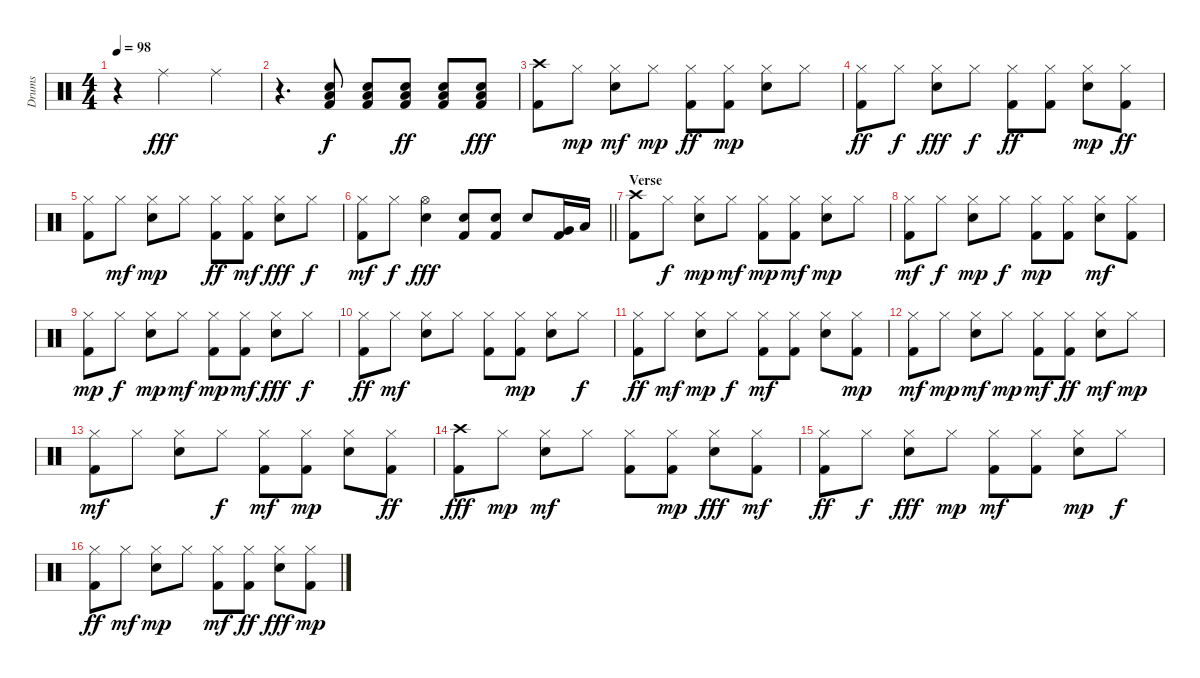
\track ("Drums" "Drums") {instrument percussion}
\staff {score}
\articulation defaults
\ts (4 4)
\tempo 98
\clef neutral
\ks c
r.4{dy fff} "Ride (middle)".2 "Ride (middle)".4 |
r.4{d} ("Kick (hit) 2" "Electric Snare (hit)" "Low Floor Tom (hit)").8{dy f} ("Kick (hit) 2" "Electric Snare (hit)" "Low Floor Tom (hit)").8 ("Kick (hit) 2" "Electric Snare (hit)" "Low Floor Tom (hit)").8{dy ff} ("Kick (hit) 2" "Electric Snare (hit)" "Low Floor Tom (hit)").8 ("Kick (hit) 2" "Electric Snare (hit)" "Low Floor Tom (hit)").8{dy fff} |
("Kick (hit) 2" "Crash high (hit)").8 "Hi-Hat (closed)".8{dy mp} ("Electric Snare (hit)" "Hi-Hat (closed)").8{dy mf} "Hi-Hat (closed)".8{dy mp} ("Kick (hit) 2" "Hi-Hat (closed)").8{dy ff} ("Kick (hit) 2" "Hi-Hat (closed)").8{dy mp} ("Electric Snare (hit)" "Hi-Hat (closed)").8 "Hi-Hat (closed)".8 |
("Kick (hit) 2" "Hi-Hat (closed)").8{dy ff} "Hi-Hat (closed)".8{dy f} ("Electric Snare (hit)" "Hi-Hat (closed)").8{dy fff} "Hi-Hat (closed)".8{dy f} ("Kick (hit) 2" "Hi-Hat (closed)").8{dy ff} ("Kick (hit) 2" "Hi-Hat (closed)").8 ("Electric Snare (hit)" "Hi-Hat (closed)").8{dy mp} ("Kick (hit) 2" "Hi-Hat (closed)").8{dy ff} |
("Kick (hit) 2" "Hi-Hat (closed)").8 "Hi-Hat (closed)".8{dy mf} ("Electric Snare (hit)" "Hi-Hat (closed)").8{dy mp} "Hi-Hat (closed)".8 ("Kick (hit) 2" "Hi-Hat (closed)").8{dy ff} ("Kick (hit) 2" "Hi-Hat (closed)").8{dy mf} ("Electric Snare (hit)" "Hi-Hat (closed)").8{dy fff} "Hi-Hat (closed)".8{dy f} |
\barLineRight lightlight
("Kick (hit) 2" "Hi-Hat (closed)").8{dy mf} "Hi-Hat (closed)".8{dy f} ("Electric Snare (hit)" "Hi-Hat (open)").4{dy fff} ("Kick (hit) 2" "Electric Snare (hit)").8 ("Kick (hit) 2" "Electric Snare (hit)").8 "Electric Snare (hit)".8 ("Kick (hit) 2" "Very Low Tom (hit)").16 "Low Floor Tom (hit)".16 |
\section ("" "Verse")
("Kick (hit) 2" "Crash high (hit)").8 "Hi-Hat (closed)".8{dy f} ("Electric Snare (hit)" "Hi-Hat (closed)").8{dy mp} "Hi-Hat (closed)".8{dy mf} ("Kick (hit) 2" "Hi-Hat (closed)").8{dy mp} ("Kick (hit) 2" "Hi-Hat (closed)").8{dy mf} ("Electric Snare (hit)" "Hi-Hat (closed)").8{dy mp} "Hi-Hat (closed)".8 |
("Kick (hit) 2" "Hi-Hat (closed)").8{dy mf} "Hi-Hat (closed)".8{dy f} ("Electric Snare (hit)" "Hi-Hat (closed)").8{dy mp} "Hi-Hat (closed)".8{dy f} ("Kick (hit) 2" "Hi-Hat (closed)").8{dy mp} ("Kick (hit) 2" "Hi-Hat (closed)").8 ("Electric Snare (hit)" "Hi-Hat (closed)").8{dy mf} ("Kick (hit) 2" "Hi-Hat (closed)").8 |
("Kick (hit) 2" "Hi-Hat (closed)").8{dy mp} "Hi-Hat (closed)".8{dy f} ("Electric Snare (hit)" "Hi-Hat (closed)").8{dy mp} "Hi-Hat (closed)".8{dy mf} ("Kick (hit) 2" "Hi-Hat (closed)").8{dy mp} ("Kick (hit) 2" "Hi-Hat (closed)").8{dy mf} ("Electric Snare (hit)" "Hi-Hat (closed)").8{dy fff} "Hi-Hat (closed)".8{dy f} |
("Kick (hit) 2" "Hi-Hat (closed)").8{dy ff} "Hi-Hat (closed)".8{dy mf} ("Electric Snare (hit)" "Hi-Hat (closed)").8 "Hi-Hat (closed)".8 ("Kick (hit) 2" "Hi-Hat (closed)").8 ("Kick (hit) 2" "Hi-Hat (closed)").8{dy mp} ("Electric Snare (hit)" "Hi-Hat (closed)").8 "Hi-Hat (closed)".8{dy f} |
("Kick (hit) 2" "Hi-Hat (closed)").8{dy ff} "Hi-Hat (closed)".8{dy mf} ("Electric Snare (hit)" "Hi-Hat (closed)").8{dy mp} "Hi-Hat (closed)".8{dy f} ("Kick (hit) 2" "Hi-Hat (closed)").8{dy mf} ("Kick (hit) 2" "Hi-Hat (closed)").8 ("Electric Snare (hit)" "Hi-Hat (closed)").8 ("Kick (hit) 2" "Hi-Hat (closed)").8{dy mp} |
("Kick (hit) 2" "Hi-Hat (closed)").8{dy mf} "Hi-Hat (closed)".8{dy mp} ("Electric Snare (hit)" "Hi-Hat (closed)").8{dy mf} "Hi-Hat (closed)".8{dy mp} ("Kick (hit) 2" "Hi-Hat (closed)").8{dy mf} ("Kick (hit) 2" "Hi-Hat (closed)").8{dy ff} ("Electric Snare (hit)" "Hi-Hat (closed)").8{dy mf} "Hi-Hat (closed)".8{dy mp} |
("Kick (hit) 2" "Hi-Hat (closed)").8{dy mf} "Hi-Hat (closed)".8 ("Electric Snare (hit)" "Hi-Hat (closed)").8 "Hi-Hat (closed)".8{dy f} ("Kick (hit) 2" "Hi-Hat (closed)").8{dy mf} ("Kick (hit) 2" "Hi-Hat (closed)").8{dy mp} ("Electric Snare (hit)" "Hi-Hat (closed)").8 ("Kick (hit) 2" "Hi-Hat (closed)").8{dy ff} |
("Kick (hit) 2" "Crash high (hit)").8{dy fff} "Hi-Hat (closed)".8{dy mp} ("Electric Snare (hit)" "Hi-Hat (closed)").8{dy mf} "Hi-Hat (closed)".8 ("Kick (hit) 2" "Hi-Hat (closed)").8 ("Kick (hit) 2" "Hi-Hat (closed)").8{dy mp} ("Electric Snare (hit)" "Hi-Hat (closed)").8{dy fff} ("Kick (hit) 2" "Hi-Hat (closed)").8{dy mf} |
("Kick (hit) 2" "Hi-Hat (closed)").8{dy ff} "Hi-Hat (closed)".8{dy f} ("Electric Snare (hit)" "Hi-Hat (closed)").8{dy fff} "Hi-Hat (closed)".8{dy mp} ("Kick (hit) 2" "Hi-Hat (closed)").8{dy mf} ("Kick (hit) 2" "Hi-Hat (closed)").8 ("Electric Snare (hit)" "Hi-Hat (closed)").8{dy mp} "Hi-Hat (closed)".8{dy f} |
("Kick (hit) 2" "Hi-Hat (closed)").8{dy ff} "Hi-Hat (closed)".8{dy mf} ("Electric Snare (hit)" "Hi-Hat (closed)").8{dy mp} "Hi-Hat (closed)".8 ("Kick (hit) 2" "Hi-Hat (closed)").8{dy mf} ("Kick (hit) 2" "Hi-Hat (closed)").8{dy ff} ("Electric Snare (hit)" "Hi-Hat (closed)").8{dy fff} ("Kick (hit) 2" "Hi-Hat (closed)").8{dy mp}
